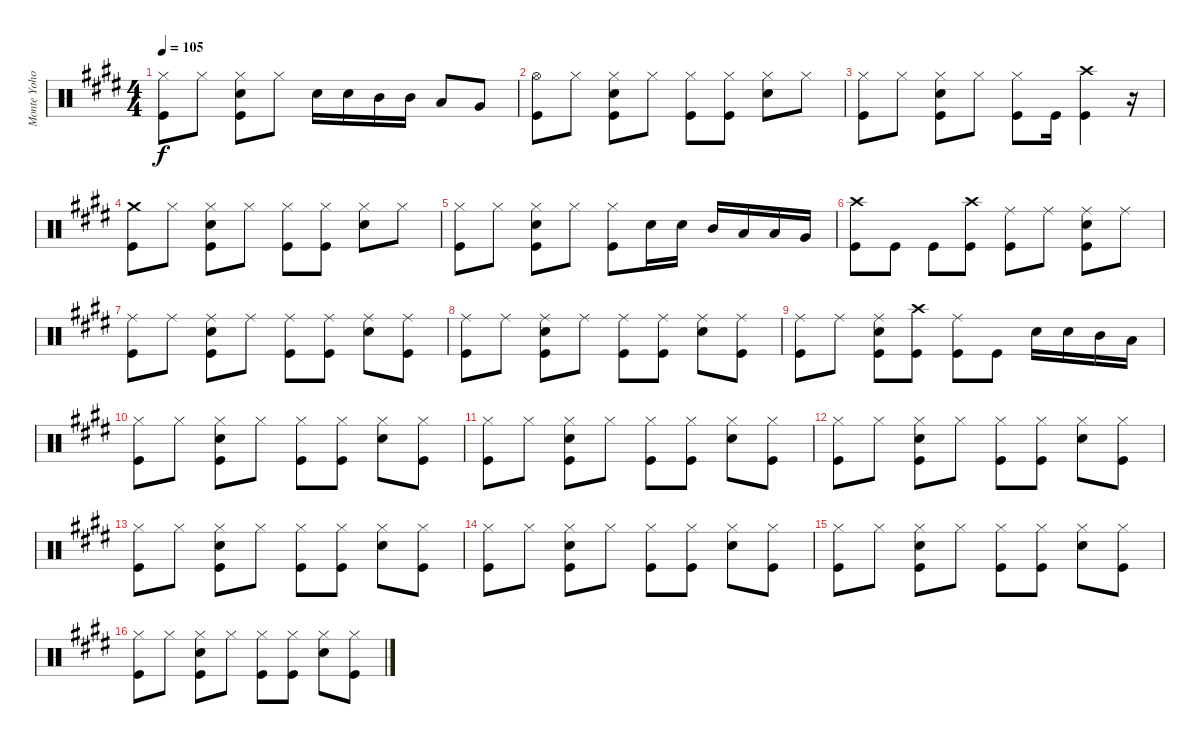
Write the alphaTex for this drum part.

\track ("Monte Yoho" "Monte Yoho") {instrument percussion}
\staff {score}
\articulation defaults
\ts (4 4)
\tempo 105
\clef neutral
\ks e
("Hi-Hat (closed)" "Kick (hit)").8{dy f} "Hi-Hat (closed)".8 ("Hi-Hat (closed)" "Snare (hit) 2" "Kick (hit)").8 "Hi-Hat (closed)".8 "Snare (hit) 2".16 "Snare (hit) 2".16 "Mid Tom (hit)".16 "Mid Tom (hit)".16 "Low Tom (hit)".8 "Very Low Tom (hit)".8 |
("Hi-Hat (open)" "Kick (hit)").8 "Hi-Hat (closed)".8 ("Hi-Hat (closed)" "Snare (hit) 2" "Kick (hit)").8 "Hi-Hat (closed)".8 ("Hi-Hat (closed)" "Kick (hit)").8 ("Hi-Hat (closed)" "Kick (hit)").8 ("Hi-Hat (closed)" "Snare (hit) 2").8 "Hi-Hat (closed)".8 |
("Hi-Hat (closed)" "Kick (hit)").8 "Hi-Hat (closed)".8 ("Hi-Hat (closed)" "Snare (hit) 2" "Kick (hit)").8 "Hi-Hat (closed)".8 ("Hi-Hat (closed)" "Kick (hit)").8 "Kick (hit)".16 ("Crash high (hit)" "Kick (hit)").4 r.16 |
("Crash medium (hit)" "Kick (hit)").8 "Hi-Hat (closed)".8 ("Hi-Hat (closed)" "Snare (hit) 2" "Kick (hit)").8 "Hi-Hat (closed)".8 ("Hi-Hat (closed)" "Kick (hit)").8 ("Hi-Hat (closed)" "Kick (hit)").8 ("Hi-Hat (closed)" "Snare (hit) 2").8 "Hi-Hat (closed)".8 |
("Hi-Hat (closed)" "Kick (hit)").8 "Hi-Hat (closed)".8 ("Hi-Hat (closed)" "Snare (hit) 2" "Kick (hit)").8 "Hi-Hat (closed)".8 ("Hi-Hat (closed)" "Kick (hit)").8 "Snare (hit) 2".16 "Snare (hit) 2".16 "Mid Tom (hit)".16 "Low Tom (hit)".16 "Low Tom (hit)".16 "Very Low Tom (hit)".16 |
("Crash high (hit)" "Kick (hit)").8 "Kick (hit)".8 "Kick (hit)".8 ("Crash high (hit)" "Kick (hit)").8 ("Ride (middle)" "Kick (hit)").8 "Ride (middle)".8 ("Ride (middle)" "Snare (hit) 2" "Kick (hit)").8 "Ride (middle)".8 |
("Ride (middle)" "Kick (hit)").8 "Ride (middle)".8 ("Ride (middle)" "Snare (hit) 2" "Kick (hit)").8 "Ride (middle)".8 ("Ride (middle)" "Kick (hit)").8 ("Ride (middle)" "Kick (hit)").8 ("Ride (middle)" "Snare (hit) 2").8 ("Ride (middle)" "Kick (hit)").8 |
("Ride (middle)" "Kick (hit)").8 "Ride (middle)".8 ("Ride (middle)" "Snare (hit) 2" "Kick (hit)").8 "Ride (middle)".8 ("Ride (middle)" "Kick (hit)").8 ("Ride (middle)" "Kick (hit)").8 ("Ride (middle)" "Snare (hit) 2").8 ("Ride (middle)" "Kick (hit)").8 |
("Ride (middle)" "Kick (hit)").8 "Ride (middle)".8 ("Ride (middle)" "Snare (hit) 2" "Kick (hit)").8 ("Crash high (hit)" "Kick (hit)").8 ("Ride (middle)" "Kick (hit)").8 "Kick (hit)".8 "Snare (hit) 2".16 "Snare (hit) 2".16 "Mid Tom (hit)".16 "Low Tom (hit)".16 |
("Hi-Hat (closed)" "Kick (hit)").8 "Hi-Hat (closed)".8 ("Hi-Hat (closed)" "Snare (hit) 2" "Kick (hit)").8 "Hi-Hat (closed)".8 ("Hi-Hat (closed)" "Kick (hit)").8 ("Hi-Hat (closed)" "Kick (hit)").8 ("Hi-Hat (closed)" "Snare (hit) 2").8 ("Hi-Hat (closed)" "Kick (hit)").8 |
("Hi-Hat (closed)" "Kick (hit)").8 "Hi-Hat (closed)".8 ("Hi-Hat (closed)" "Snare (hit) 2" "Kick (hit)").8 "Hi-Hat (closed)".8 ("Hi-Hat (closed)" "Kick (hit)").8 ("Hi-Hat (closed)" "Kick (hit)").8 ("Hi-Hat (closed)" "Snare (hit) 2").8 ("Hi-Hat (closed)" "Kick (hit)").8 |
("Hi-Hat (closed)" "Kick (hit)").8 "Hi-Hat (closed)".8 ("Hi-Hat (closed)" "Snare (hit) 2" "Kick (hit)").8 "Hi-Hat (closed)".8 ("Hi-Hat (closed)" "Kick (hit)").8 ("Hi-Hat (closed)" "Kick (hit)").8 ("Hi-Hat (closed)" "Snare (hit) 2").8 ("Hi-Hat (closed)" "Kick (hit)").8 |
("Hi-Hat (closed)" "Kick (hit)").8 "Hi-Hat (closed)".8 ("Hi-Hat (closed)" "Snare (hit) 2" "Kick (hit)").8 "Hi-Hat (closed)".8 ("Hi-Hat (closed)" "Kick (hit)").8 ("Hi-Hat (closed)" "Kick (hit)").8 ("Hi-Hat (closed)" "Snare (hit) 2").8 ("Hi-Hat (closed)" "Kick (hit)").8 |
("Hi-Hat (closed)" "Kick (hit)").8 "Hi-Hat (closed)".8 ("Hi-Hat (closed)" "Snare (hit) 2" "Kick (hit)").8 "Hi-Hat (closed)".8 ("Hi-Hat (closed)" "Kick (hit)").8 ("Hi-Hat (closed)" "Kick (hit)").8 ("Hi-Hat (closed)" "Snare (hit) 2").8 ("Hi-Hat (closed)" "Kick (hit)").8 |
("Hi-Hat (closed)" "Kick (hit)").8 "Hi-Hat (closed)".8 ("Hi-Hat (closed)" "Snare (hit) 2" "Kick (hit)").8 "Hi-Hat (closed)".8 ("Hi-Hat (closed)" "Kick (hit)").8 ("Hi-Hat (closed)" "Kick (hit)").8 ("Hi-Hat (closed)" "Snare (hit) 2").8 ("Hi-Hat (closed)" "Kick (hit)").8 |
("Hi-Hat (closed)" "Kick (hit)").8 "Hi-Hat (closed)".8 ("Hi-Hat (closed)" "Snare (hit) 2" "Kick (hit)").8 "Hi-Hat (closed)".8 ("Hi-Hat (closed)" "Kick (hit)").8 ("Hi-Hat (closed)" "Kick (hit)").8 ("Hi-Hat (closed)" "Snare (hit) 2").8 ("Hi-Hat (closed)" "Kick (hit)").8
